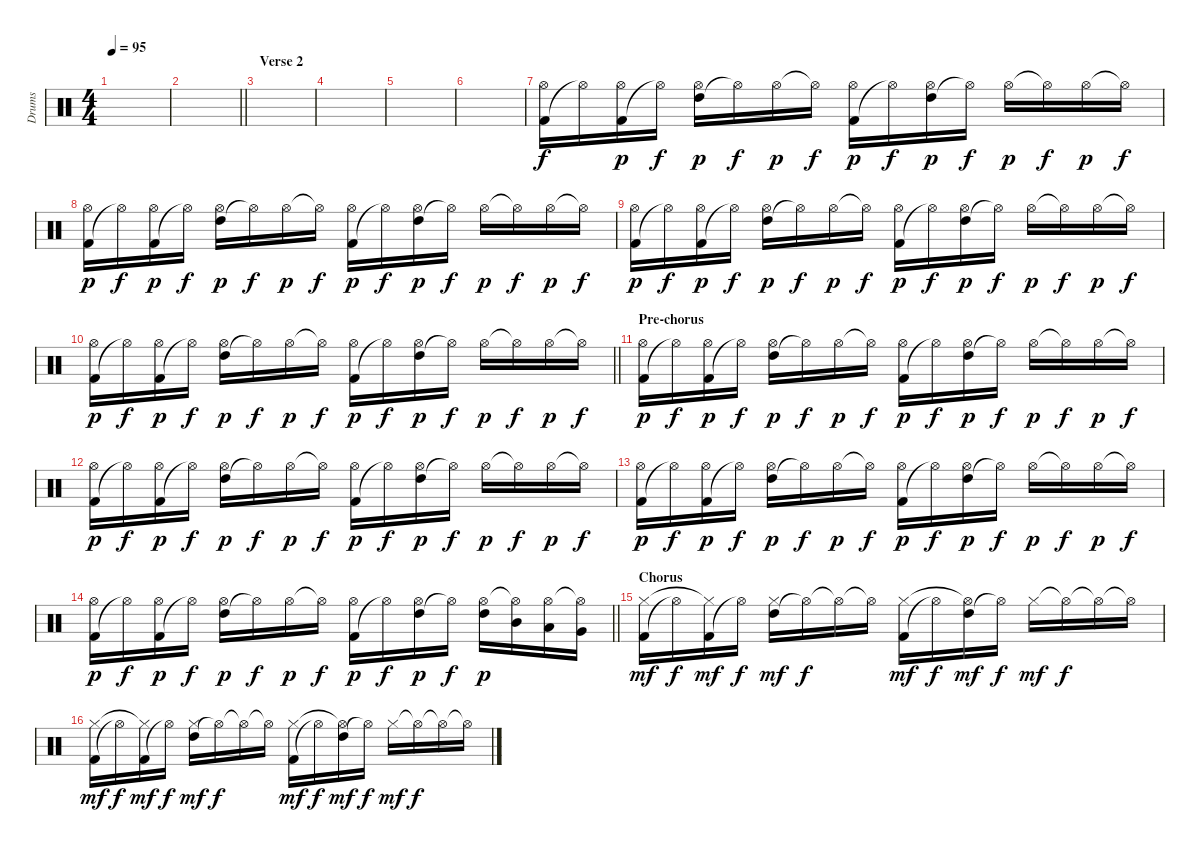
\track ("Drums" "Drums") {instrument percussion}
\staff {score}
\articulation defaults
\ts (4 4)
\tempo 95
\clef neutral
\ks c
|
\barLineRight lightlight
|
\section ("" "Verse 2")
|
|
|
|
("Kick (hit) 2" "Hi-Hat (open)").16 "Hi-Hat (open)"{t}.16{dy f} ("Kick (hit) 2" "Hi-Hat (open)").16{dy p} "Hi-Hat (open)"{t}.16{dy f} ("High Tom (hit)" "Hi-Hat (open)").16{dy p} "Hi-Hat (open)"{t}.16{dy f} "Hi-Hat (open)".16{dy p} "Hi-Hat (open)"{t}.16{dy f} ("Kick (hit) 2" "Hi-Hat (open)").16{dy p} "Hi-Hat (open)"{t}.16{dy f} ("High Tom (hit)" "Hi-Hat (open)").16{dy p} "Hi-Hat (open)"{t}.16{dy f} "Hi-Hat (open)".16{dy p} "Hi-Hat (open)"{t}.16{dy f} "Hi-Hat (open)".16{dy p} "Hi-Hat (open)"{t}.16{dy f} |
("Kick (hit) 2" "Hi-Hat (open)").16{dy p} "Hi-Hat (open)"{t}.16{dy f} ("Kick (hit) 2" "Hi-Hat (open)").16{dy p} "Hi-Hat (open)"{t}.16{dy f} ("High Tom (hit)" "Hi-Hat (open)").16{dy p} "Hi-Hat (open)"{t}.16{dy f} "Hi-Hat (open)".16{dy p} "Hi-Hat (open)"{t}.16{dy f} ("Kick (hit) 2" "Hi-Hat (open)").16{dy p} "Hi-Hat (open)"{t}.16{dy f} ("High Tom (hit)" "Hi-Hat (open)").16{dy p} "Hi-Hat (open)"{t}.16{dy f} "Hi-Hat (open)".16{dy p} "Hi-Hat (open)"{t}.16{dy f} "Hi-Hat (open)".16{dy p} "Hi-Hat (open)"{t}.16{dy f} |
("Kick (hit) 2" "Hi-Hat (open)").16{dy p} "Hi-Hat (open)"{t}.16{dy f} ("Kick (hit) 2" "Hi-Hat (open)").16{dy p} "Hi-Hat (open)"{t}.16{dy f} ("High Tom (hit)" "Hi-Hat (open)").16{dy p} "Hi-Hat (open)"{t}.16{dy f} "Hi-Hat (open)".16{dy p} "Hi-Hat (open)"{t}.16{dy f} ("Kick (hit) 2" "Hi-Hat (open)").16{dy p} "Hi-Hat (open)"{t}.16{dy f} ("High Tom (hit)" "Hi-Hat (open)").16{dy p} "Hi-Hat (open)"{t}.16{dy f} "Hi-Hat (open)".16{dy p} "Hi-Hat (open)"{t}.16{dy f} "Hi-Hat (open)".16{dy p} "Hi-Hat (open)"{t}.16{dy f} |
\barLineRight lightlight
("Kick (hit) 2" "Hi-Hat (open)").16{dy p} "Hi-Hat (open)"{t}.16{dy f} ("Kick (hit) 2" "Hi-Hat (open)").16{dy p} "Hi-Hat (open)"{t}.16{dy f} ("High Tom (hit)" "Hi-Hat (open)").16{dy p} "Hi-Hat (open)"{t}.16{dy f} "Hi-Hat (open)".16{dy p} "Hi-Hat (open)"{t}.16{dy f} ("Kick (hit) 2" "Hi-Hat (open)").16{dy p} "Hi-Hat (open)"{t}.16{dy f} ("High Tom (hit)" "Hi-Hat (open)").16{dy p} "Hi-Hat (open)"{t}.16{dy f} "Hi-Hat (open)".16{dy p} "Hi-Hat (open)"{t}.16{dy f} "Hi-Hat (open)".16{dy p} "Hi-Hat (open)"{t}.16{dy f} |
\section ("" "Pre-chorus")
("Kick (hit) 2" "Hi-Hat (open)").16{dy p} "Hi-Hat (open)"{t}.16{dy f} ("Kick (hit) 2" "Hi-Hat (open)").16{dy p} "Hi-Hat (open)"{t}.16{dy f} ("High Tom (hit)" "Hi-Hat (open)").16{dy p} "Hi-Hat (open)"{t}.16{dy f} "Hi-Hat (open)".16{dy p} "Hi-Hat (open)"{t}.16{dy f} ("Kick (hit) 2" "Hi-Hat (open)").16{dy p} "Hi-Hat (open)"{t}.16{dy f} ("High Tom (hit)" "Hi-Hat (open)").16{dy p} "Hi-Hat (open)"{t}.16{dy f} "Hi-Hat (open)".16{dy p} "Hi-Hat (open)"{t}.16{dy f} "Hi-Hat (open)".16{dy p} "Hi-Hat (open)"{t}.16{dy f} |
("Kick (hit) 2" "Hi-Hat (open)").16{dy p} "Hi-Hat (open)"{t}.16{dy f} ("Kick (hit) 2" "Hi-Hat (open)").16{dy p} "Hi-Hat (open)"{t}.16{dy f} ("High Tom (hit)" "Hi-Hat (open)").16{dy p} "Hi-Hat (open)"{t}.16{dy f} "Hi-Hat (open)".16{dy p} "Hi-Hat (open)"{t}.16{dy f} ("Kick (hit) 2" "Hi-Hat (open)").16{dy p} "Hi-Hat (open)"{t}.16{dy f} ("High Tom (hit)" "Hi-Hat (open)").16{dy p} "Hi-Hat (open)"{t}.16{dy f} "Hi-Hat (open)".16{dy p} "Hi-Hat (open)"{t}.16{dy f} "Hi-Hat (open)".16{dy p} "Hi-Hat (open)"{t}.16{dy f} |
("Kick (hit) 2" "Hi-Hat (open)").16{dy p} "Hi-Hat (open)"{t}.16{dy f} ("Kick (hit) 2" "Hi-Hat (open)").16{dy p} "Hi-Hat (open)"{t}.16{dy f} ("High Tom (hit)" "Hi-Hat (open)").16{dy p} "Hi-Hat (open)"{t}.16{dy f} "Hi-Hat (open)".16{dy p} "Hi-Hat (open)"{t}.16{dy f} ("Kick (hit) 2" "Hi-Hat (open)").16{dy p} "Hi-Hat (open)"{t}.16{dy f} ("High Tom (hit)" "Hi-Hat (open)").16{dy p} "Hi-Hat (open)"{t}.16{dy f} "Hi-Hat (open)".16{dy p} "Hi-Hat (open)"{t}.16{dy f} "Hi-Hat (open)".16{dy p} "Hi-Hat (open)"{t}.16{dy f} |
\barLineRight lightlight
("Kick (hit) 2" "Hi-Hat (open)").16{dy p} "Hi-Hat (open)"{t}.16{dy f} ("Kick (hit) 2" "Hi-Hat (open)").16{dy p} "Hi-Hat (open)"{t}.16{dy f} ("High Tom (hit)" "Hi-Hat (open)").16{dy p} "Hi-Hat (open)"{t}.16{dy f} "Hi-Hat (open)".16{dy p} "Hi-Hat (open)"{t}.16{dy f} ("Kick (hit) 2" "Hi-Hat (open)").16{dy p} "Hi-Hat (open)"{t}.16{dy f} ("High Tom (hit)" "Hi-Hat (open)").16{dy p} "Hi-Hat (open)"{t}.16{dy f} ("High Tom (hit)" "Hi-Hat (open)").16{dy p} ("Mid Tom (hit)" "Hi-Hat (open)"{t}).16 ("Low Tom (hit)" "Hi-Hat (open)").16 ("Very Low Tom (hit)" "Hi-Hat (open)"{t}).16 |
\section ("" "Chorus")
("Kick (hit) 2" "Hi-Hat (closed)").16{dy mf} "Hi-Hat (open)"{t}.16{dy f} ("Kick (hit) 2" "Hi-Hat (closed)"{t}).16{dy mf} "Hi-Hat (open)"{t}.16{dy f} ("High Tom (hit)" "Hi-Hat (closed)").16{dy mf} "Hi-Hat (open)"{t}.16{dy f} "Hi-Hat (open)"{t}.16 "Hi-Hat (open)"{t}.16 ("Kick (hit) 2" "Hi-Hat (closed)").16{dy mf} "Hi-Hat (open)"{t}.16{dy f} ("High Tom (hit)" "Hi-Hat (open)"{t}).16{dy mf} "Hi-Hat (open)"{t}.16{dy f} "Hi-Hat (closed)".16{dy mf} "Hi-Hat (open)"{t}.16{dy f} "Hi-Hat (open)"{t}.16 "Hi-Hat (open)"{t}.16 |
("Kick (hit) 2" "Hi-Hat (closed)").16{dy mf} "Hi-Hat (open)"{t}.16{dy f} ("Kick (hit) 2" "Hi-Hat (closed)"{t}).16{dy mf} "Hi-Hat (open)"{t}.16{dy f} ("High Tom (hit)" "Hi-Hat (closed)").16{dy mf} "Hi-Hat (open)"{t}.16{dy f} "Hi-Hat (open)"{t}.16 "Hi-Hat (open)"{t}.16 ("Kick (hit) 2" "Hi-Hat (closed)").16{dy mf} "Hi-Hat (open)"{t}.16{dy f} ("High Tom (hit)" "Hi-Hat (open)"{t}).16{dy mf} "Hi-Hat (open)"{t}.16{dy f} "Hi-Hat (closed)".16{dy mf} "Hi-Hat (open)"{t}.16{dy f} "Hi-Hat (open)"{t}.16 "Hi-Hat (open)"{t}.16
